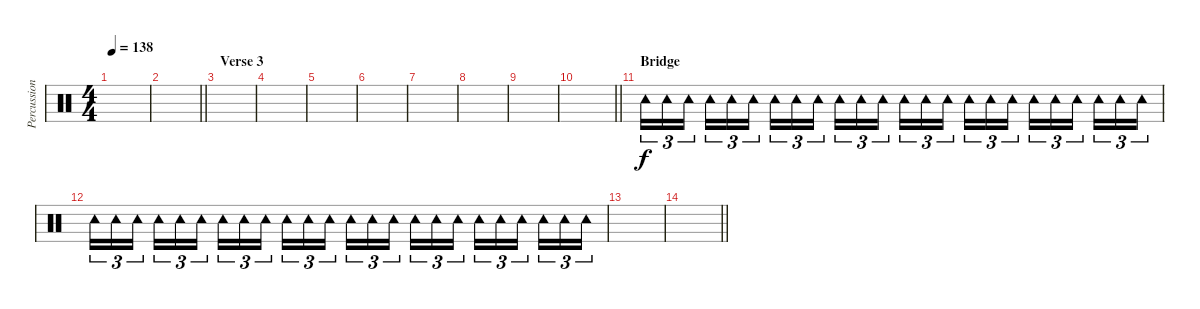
\track ("Percussions" "Percussion") {instrument percussion}
\staff
\articulation defaults
\ts (4 4)
\tempo 138
\clef neutral
\ks c
|
\barLineRight lightlight
|
\section ("" "Verse 3")
|
|
|
|
|
|
|
\barLineRight lightlight
|
\section ("" "Bridge")
"Tambourine (hit)".16{tu (3 2) volume 0} "Tambourine (hit)".16{tu (3 2)} "Tambourine (hit)".16{tu (3 2) beam splitsecondary} "Tambourine (hit)".16{tu (3 2)} "Tambourine (hit)".16{tu (3 2)} "Tambourine (hit)".16{tu (3 2)} "Tambourine (hit)".16{tu (3 2)} "Tambourine (hit)".16{tu (3 2)} "Tambourine (hit)".16{tu (3 2) beam splitsecondary} "Tambourine (hit)".16{tu (3 2)} "Tambourine (hit)".16{tu (3 2)} "Tambourine (hit)".16{tu (3 2)} "Tambourine (hit)".16{tu (3 2)} "Tambourine (hit)".16{tu (3 2)} "Tambourine (hit)".16{tu (3 2) beam splitsecondary} "Tambourine (hit)".16{tu (3 2)} "Tambourine (hit)".16{tu (3 2)} "Tambourine (hit)".16{tu (3 2)} "Tambourine (hit)".16{tu (3 2)} "Tambourine (hit)".16{tu (3 2)} "Tambourine (hit)".16{tu (3 2) beam splitsecondary} "Tambourine (hit)".16{tu (3 2)} "Tambourine (hit)".16{tu (3 2)} "Tambourine (hit)".16{tu (3 2)} |
"Tambourine (hit)".16{tu (3 2)} "Tambourine (hit)".16{tu (3 2)} "Tambourine (hit)".16{tu (3 2) beam splitsecondary} "Tambourine (hit)".16{tu (3 2)} "Tambourine (hit)".16{tu (3 2)} "Tambourine (hit)".16{tu (3 2)} "Tambourine (hit)".16{tu (3 2)} "Tambourine (hit)".16{tu (3 2)} "Tambourine (hit)".16{tu (3 2) beam splitsecondary} "Tambourine (hit)".16{tu (3 2)} "Tambourine (hit)".16{tu (3 2)} "Tambourine (hit)".16{tu (3 2)} "Tambourine (hit)".16{tu (3 2)} "Tambourine (hit)".16{tu (3 2)} "Tambourine (hit)".16{tu (3 2) beam splitsecondary} "Tambourine (hit)".16{tu (3 2)} "Tambourine (hit)".16{tu (3 2)} "Tambourine (hit)".16{tu (3 2)} "Tambourine (hit)".16{tu (3 2)} "Tambourine (hit)".16{tu (3 2)} "Tambourine (hit)".16{tu (3 2) beam splitsecondary} "Tambourine (hit)".16{tu (3 2)} "Tambourine (hit)".16{tu (3 2)} "Tambourine (hit)".16{tu (3 2)} |
|
\barLineRight lightlight
